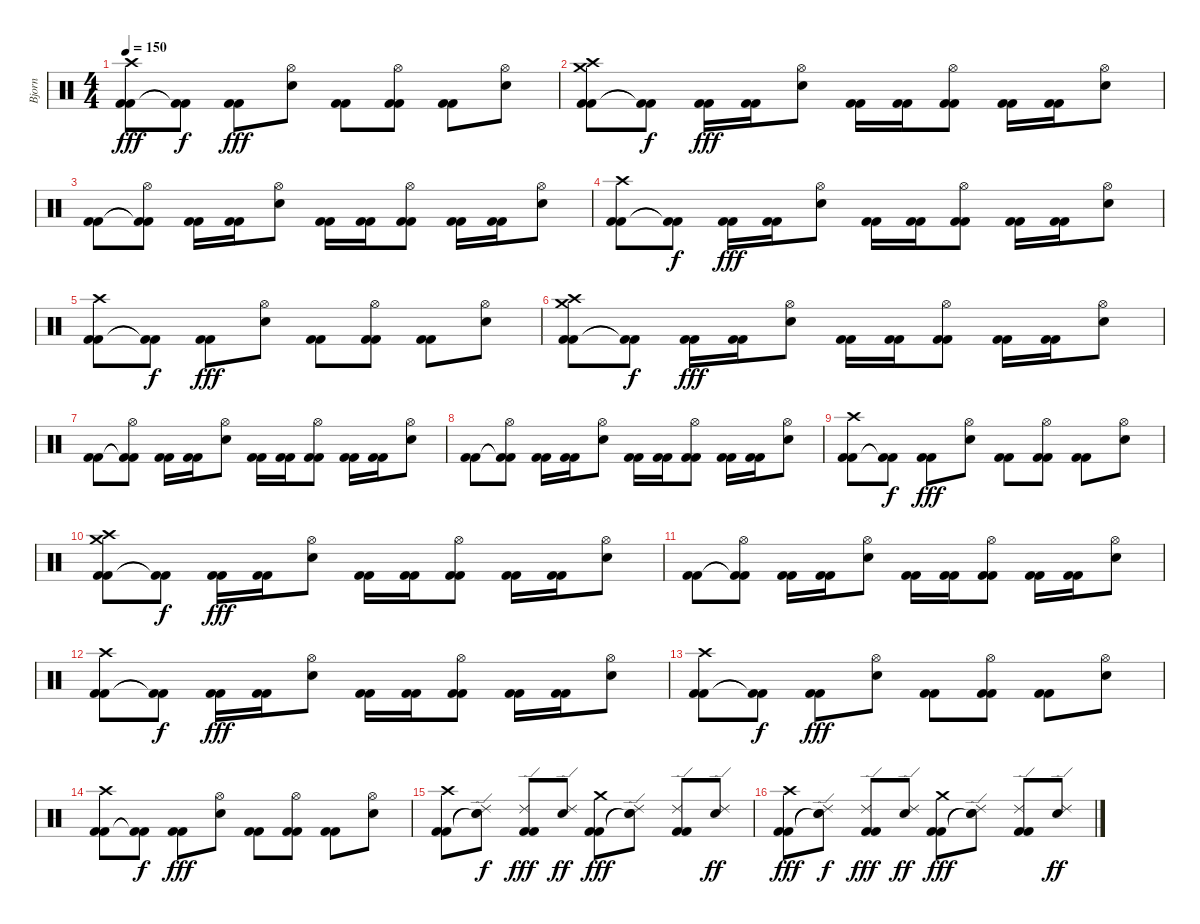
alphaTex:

\track ("Bjorn" "Bjorn") {instrument percussion}
\staff {score}
\articulation defaults
\ts (4 4)
\tempo 150
\clef neutral
\ks c
("Kick (hit) 2" "Kick (hit) 2" "Crash high (hit)").8{dy fff} ("Kick (hit) 2"{t} "Kick (hit) 2"{t}).8{dy f} ("Kick (hit) 2" "Kick (hit) 2").8{dy fff} ("Snare (hit) 2" "Hi-Hat (open)").8 ("Kick (hit) 2" "Kick (hit) 2").8 ("Kick (hit) 2" "Kick (hit) 2" "Hi-Hat (open)").8 ("Kick (hit) 2" "Kick (hit) 2").8 ("Snare (hit) 2" "Hi-Hat (open)").8 |
("Kick (hit) 2" "Kick (hit) 2" "Crash high (hit)" "Crash medium (hit)").8 ("Kick (hit) 2"{t} "Kick (hit) 2"{t}).8{dy f} ("Kick (hit) 2" "Kick (hit) 2").16{dy fff} ("Kick (hit) 2" "Kick (hit) 2").16 ("Snare (hit) 2" "Hi-Hat (open)").8 ("Kick (hit) 2" "Kick (hit) 2").16 ("Kick (hit) 2" "Kick (hit) 2").16 ("Kick (hit) 2" "Kick (hit) 2" "Hi-Hat (open)").8 ("Kick (hit) 2" "Kick (hit) 2").16 ("Kick (hit) 2" "Kick (hit) 2").16 ("Snare (hit) 2" "Hi-Hat (open)").8 |
("Kick (hit) 2" "Kick (hit) 2").8 ("Kick (hit) 2"{t} "Kick (hit) 2"{t} "Hi-Hat (open)").8 ("Kick (hit) 2" "Kick (hit) 2").16 ("Kick (hit) 2" "Kick (hit) 2").16 ("Snare (hit) 2" "Hi-Hat (open)").8 ("Kick (hit) 2" "Kick (hit) 2").16 ("Kick (hit) 2" "Kick (hit) 2").16 ("Kick (hit) 2" "Kick (hit) 2" "Hi-Hat (open)").8 ("Kick (hit) 2" "Kick (hit) 2").16 ("Kick (hit) 2" "Kick (hit) 2").16 ("Snare (hit) 2" "Hi-Hat (open)").8 |
("Kick (hit) 2" "Kick (hit) 2" "Crash high (hit)").8 ("Kick (hit) 2"{t} "Kick (hit) 2"{t}).8{dy f} ("Kick (hit) 2" "Kick (hit) 2").16{dy fff} ("Kick (hit) 2" "Kick (hit) 2").16 ("Snare (hit) 2" "Hi-Hat (open)").8 ("Kick (hit) 2" "Kick (hit) 2").16 ("Kick (hit) 2" "Kick (hit) 2").16 ("Kick (hit) 2" "Kick (hit) 2" "Hi-Hat (open)").8 ("Kick (hit) 2" "Kick (hit) 2").16 ("Kick (hit) 2" "Kick (hit) 2").16 ("Snare (hit) 2" "Hi-Hat (open)").8 |
("Kick (hit) 2" "Kick (hit) 2" "Crash high (hit)").8 ("Kick (hit) 2"{t} "Kick (hit) 2"{t}).8{dy f} ("Kick (hit) 2" "Kick (hit) 2").8{dy fff} ("Snare (hit) 2" "Hi-Hat (open)").8 ("Kick (hit) 2" "Kick (hit) 2").8 ("Kick (hit) 2" "Kick (hit) 2" "Hi-Hat (open)").8 ("Kick (hit) 2" "Kick (hit) 2").8 ("Snare (hit) 2" "Hi-Hat (open)").8 |
("Kick (hit) 2" "Kick (hit) 2" "Crash high (hit)" "Crash medium (hit)").8 ("Kick (hit) 2"{t} "Kick (hit) 2"{t}).8{dy f} ("Kick (hit) 2" "Kick (hit) 2").16{dy fff} ("Kick (hit) 2" "Kick (hit) 2").16 ("Snare (hit) 2" "Hi-Hat (open)").8 ("Kick (hit) 2" "Kick (hit) 2").16 ("Kick (hit) 2" "Kick (hit) 2").16 ("Kick (hit) 2" "Kick (hit) 2" "Hi-Hat (open)").8 ("Kick (hit) 2" "Kick (hit) 2").16 ("Kick (hit) 2" "Kick (hit) 2").16 ("Snare (hit) 2" "Hi-Hat (open)").8 |
("Kick (hit) 2" "Kick (hit) 2").8 ("Kick (hit) 2"{t} "Kick (hit) 2"{t} "Hi-Hat (open)").8 ("Kick (hit) 2" "Kick (hit) 2").16 ("Kick (hit) 2" "Kick (hit) 2").16 ("Snare (hit) 2" "Hi-Hat (open)").8 ("Kick (hit) 2" "Kick (hit) 2").16 ("Kick (hit) 2" "Kick (hit) 2").16 ("Kick (hit) 2" "Kick (hit) 2" "Hi-Hat (open)").8 ("Kick (hit) 2" "Kick (hit) 2").16 ("Kick (hit) 2" "Kick (hit) 2").16 ("Snare (hit) 2" "Hi-Hat (open)").8 |
("Kick (hit) 2" "Kick (hit) 2").8 ("Kick (hit) 2"{t} "Kick (hit) 2"{t} "Hi-Hat (open)").8 ("Kick (hit) 2" "Kick (hit) 2").16 ("Kick (hit) 2" "Kick (hit) 2").16 ("Snare (hit) 2" "Hi-Hat (open)").8 ("Kick (hit) 2" "Kick (hit) 2").16 ("Kick (hit) 2" "Kick (hit) 2").16 ("Kick (hit) 2" "Kick (hit) 2" "Hi-Hat (open)").8 ("Kick (hit) 2" "Kick (hit) 2").16 ("Kick (hit) 2" "Kick (hit) 2").16 ("Snare (hit) 2" "Hi-Hat (open)").8 |
("Kick (hit) 2" "Kick (hit) 2" "Crash high (hit)").8 ("Kick (hit) 2"{t} "Kick (hit) 2"{t}).8{dy f} ("Kick (hit) 2" "Kick (hit) 2").8{dy fff} ("Snare (hit) 2" "Hi-Hat (open)").8 ("Kick (hit) 2" "Kick (hit) 2").8 ("Kick (hit) 2" "Kick (hit) 2" "Hi-Hat (open)").8 ("Kick (hit) 2" "Kick (hit) 2").8 ("Snare (hit) 2" "Hi-Hat (open)").8 |
("Kick (hit) 2" "Kick (hit) 2" "Crash high (hit)" "Crash medium (hit)").8 ("Kick (hit) 2"{t} "Kick (hit) 2"{t}).8{dy f} ("Kick (hit) 2" "Kick (hit) 2").16{dy fff} ("Kick (hit) 2" "Kick (hit) 2").16 ("Snare (hit) 2" "Hi-Hat (open)").8 ("Kick (hit) 2" "Kick (hit) 2").16 ("Kick (hit) 2" "Kick (hit) 2").16 ("Kick (hit) 2" "Kick (hit) 2" "Hi-Hat (open)").8 ("Kick (hit) 2" "Kick (hit) 2").16 ("Kick (hit) 2" "Kick (hit) 2").16 ("Snare (hit) 2" "Hi-Hat (open)").8 |
("Kick (hit) 2" "Kick (hit) 2").8 ("Kick (hit) 2"{t} "Kick (hit) 2"{t} "Hi-Hat (open)").8 ("Kick (hit) 2" "Kick (hit) 2").16 ("Kick (hit) 2" "Kick (hit) 2").16 ("Snare (hit) 2" "Hi-Hat (open)").8 ("Kick (hit) 2" "Kick (hit) 2").16 ("Kick (hit) 2" "Kick (hit) 2").16 ("Kick (hit) 2" "Kick (hit) 2" "Hi-Hat (open)").8 ("Kick (hit) 2" "Kick (hit) 2").16 ("Kick (hit) 2" "Kick (hit) 2").16 ("Snare (hit) 2" "Hi-Hat (open)").8 |
("Kick (hit) 2" "Kick (hit) 2" "Crash high (hit)").8 ("Kick (hit) 2"{t} "Kick (hit) 2"{t}).8{dy f} ("Kick (hit) 2" "Kick (hit) 2").16{dy fff} ("Kick (hit) 2" "Kick (hit) 2").16 ("Snare (hit) 2" "Hi-Hat (open)").8 ("Kick (hit) 2" "Kick (hit) 2").16 ("Kick (hit) 2" "Kick (hit) 2").16 ("Kick (hit) 2" "Kick (hit) 2" "Hi-Hat (open)").8 ("Kick (hit) 2" "Kick (hit) 2").16 ("Kick (hit) 2" "Kick (hit) 2").16 ("Snare (hit) 2" "Hi-Hat (open)").8 |
("Kick (hit) 2" "Kick (hit) 2" "Crash high (hit)").8 ("Kick (hit) 2"{t} "Kick (hit) 2"{t}).8{dy f} ("Kick (hit) 2" "Kick (hit) 2").8{dy fff} ("Snare (hit) 2" "Hi-Hat (open)").8 ("Kick (hit) 2" "Kick (hit) 2").8 ("Kick (hit) 2" "Kick (hit) 2" "Hi-Hat (open)").8 ("Kick (hit) 2" "Kick (hit) 2").8 ("Snare (hit) 2" "Hi-Hat (open)").8 |
("Kick (hit) 2" "Kick (hit) 2" "Crash high (hit)").8 ("Kick (hit) 2"{t} "Kick (hit) 2"{t}).8{dy f} ("Kick (hit) 2" "Kick (hit) 2").8{dy fff} ("Snare (hit) 2" "Hi-Hat (open)").8 ("Kick (hit) 2" "Kick (hit) 2").8 ("Kick (hit) 2" "Kick (hit) 2" "Hi-Hat (open)").8 ("Kick (hit) 2" "Kick (hit) 2").8 ("Snare (hit) 2" "Hi-Hat (open)").8 |
("Kick (hit) 2" "Kick (hit) 2" "Crash high (hit)").8 ("Snare (hit)"{t} "Snare (hit)"{t} "Ride (edge) 2").8{dy f} ("Kick (hit) 2" "Kick (hit) 2" "Ride (edge) 2").8{dy fff} ("Snare (hit) 2" "Ride (edge) 2").8{dy ff} ("Kick (hit) 2" "Kick (hit) 2" "Crash medium (hit)").8{dy fff} ("Snare (hit)"{t} "Snare (hit)"{t} "Ride (edge) 2").8 ("Kick (hit) 2" "Kick (hit) 2" "Ride (edge) 2").8 ("Snare (hit) 2" "Ride (edge) 2").8{dy ff} |
("Kick (hit) 2" "Kick (hit) 2" "Crash high (hit)").8{dy fff} ("Snare (hit)"{t} "Snare (hit)"{t} "Ride (edge) 2").8{dy f} ("Kick (hit) 2" "Kick (hit) 2" "Ride (edge) 2").8{dy fff} ("Snare (hit) 2" "Ride (edge) 2").8{dy ff} ("Kick (hit) 2" "Kick (hit) 2" "Crash medium (hit)").8{dy fff} ("Snare (hit)"{t} "Snare (hit)"{t} "Ride (edge) 2").8 ("Kick (hit) 2" "Kick (hit) 2" "Ride (edge) 2").8 ("Snare (hit) 2" "Ride (edge) 2").8{dy ff}
